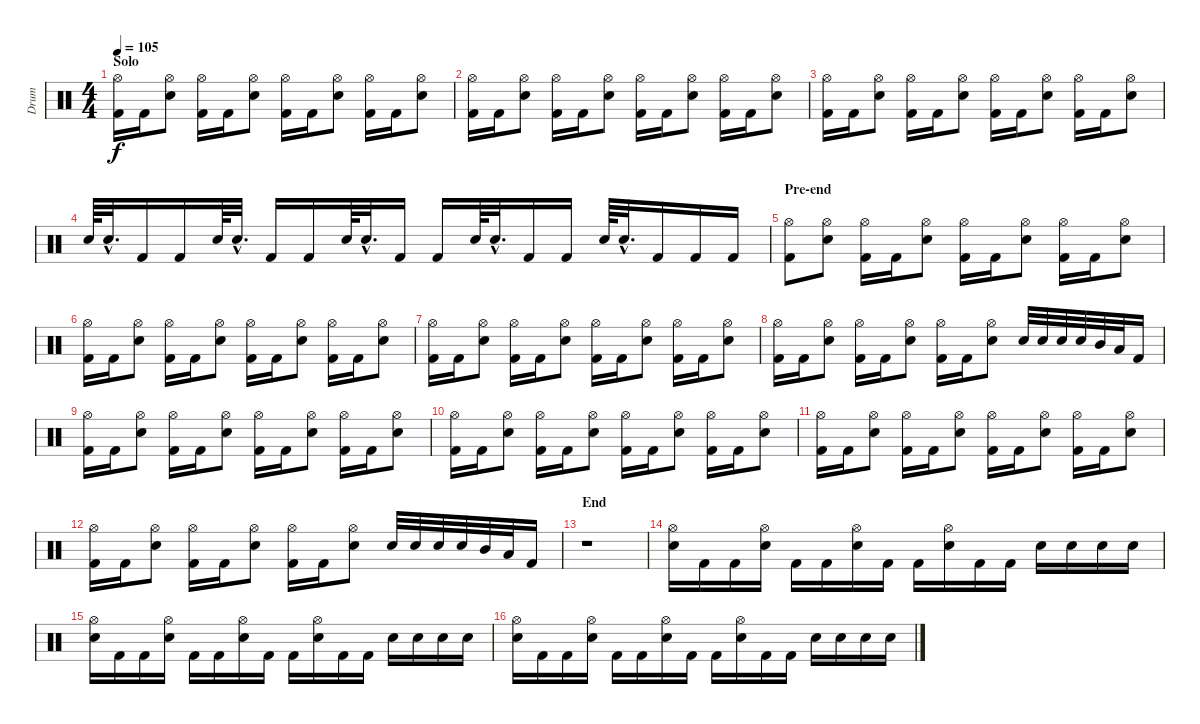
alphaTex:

\track ("Drum" "Drum") {instrument percussion}
\staff {score}
\articulation defaults
\ts (4 4)
\section ("" "Solo")
\tempo 105
\clef neutral
\ks c
("Hi-Hat (open)" "Kick (hit) 2").16{dy f} "Kick (hit) 2".16 ("Hi-Hat (open)" "Electric Snare (hit)").8 ("Hi-Hat (open)" "Kick (hit) 2").16 "Kick (hit) 2".16 ("Hi-Hat (open)" "Electric Snare (hit)").8 ("Hi-Hat (open)" "Kick (hit) 2").16 "Kick (hit) 2".16 ("Hi-Hat (open)" "Electric Snare (hit)").8 ("Hi-Hat (open)" "Kick (hit) 2").16 "Kick (hit) 2".16 ("Hi-Hat (open)" "Electric Snare (hit)").8 |
("Hi-Hat (open)" "Kick (hit) 2").16 "Kick (hit) 2".16 ("Hi-Hat (open)" "Electric Snare (hit)").8 ("Hi-Hat (open)" "Kick (hit) 2").16 "Kick (hit) 2".16 ("Hi-Hat (open)" "Electric Snare (hit)").8 ("Hi-Hat (open)" "Kick (hit) 2").16 "Kick (hit) 2".16 ("Hi-Hat (open)" "Electric Snare (hit)").8 ("Hi-Hat (open)" "Kick (hit) 2").16 "Kick (hit) 2".16 ("Hi-Hat (open)" "Electric Snare (hit)").8 |
("Hi-Hat (open)" "Kick (hit) 2").16 "Kick (hit) 2".16 ("Hi-Hat (open)" "Electric Snare (hit)").8 ("Hi-Hat (open)" "Kick (hit) 2").16 "Kick (hit) 2".16 ("Hi-Hat (open)" "Electric Snare (hit)").8 ("Hi-Hat (open)" "Kick (hit) 2").16 "Kick (hit) 2".16 ("Hi-Hat (open)" "Electric Snare (hit)").8 ("Hi-Hat (open)" "Kick (hit) 2").16 "Kick (hit) 2".16 ("Hi-Hat (open)" "Electric Snare (hit)").8 |
"Electric Snare (hit)".64 "Electric Snare (hit)"{hac}.32{d} "Kick (hit) 2".16 "Kick (hit) 2".16 "Electric Snare (hit)".64 "Electric Snare (hit)"{hac}.32{d} "Kick (hit) 2".16 "Kick (hit) 2".16 "Electric Snare (hit)".64 "Electric Snare (hit)"{hac}.32{d} "Kick (hit) 2".16 "Kick (hit) 2".16 "Electric Snare (hit)".64 "Electric Snare (hit)"{hac}.32{d} "Kick (hit) 2".16 "Kick (hit) 2".16 "Electric Snare (hit)".64 "Electric Snare (hit)"{hac}.32{d} "Kick (hit) 2".16 "Kick (hit) 2".16 "Kick (hit) 2".16 |
\section ("" "Pre-end")
("Hi-Hat (open)" "Kick (hit) 2").8 ("Hi-Hat (open)" "Electric Snare (hit)").8 ("Hi-Hat (open)" "Kick (hit) 2").16 "Kick (hit) 2".16 ("Hi-Hat (open)" "Electric Snare (hit)").8 ("Hi-Hat (open)" "Kick (hit) 2").16 "Kick (hit) 2".16 ("Hi-Hat (open)" "Electric Snare (hit)").8 ("Hi-Hat (open)" "Kick (hit) 2").16 "Kick (hit) 2".16 ("Hi-Hat (open)" "Electric Snare (hit)").8 |
("Hi-Hat (open)" "Kick (hit) 2").16 "Kick (hit) 2".16 ("Hi-Hat (open)" "Electric Snare (hit)").8 ("Hi-Hat (open)" "Kick (hit) 2").16 "Kick (hit) 2".16 ("Hi-Hat (open)" "Electric Snare (hit)").8 ("Hi-Hat (open)" "Kick (hit) 2").16 "Kick (hit) 2".16 ("Hi-Hat (open)" "Electric Snare (hit)").8 ("Hi-Hat (open)" "Kick (hit) 2").16 "Kick (hit) 2".16 ("Hi-Hat (open)" "Electric Snare (hit)").8 |
("Hi-Hat (open)" "Kick (hit) 2").16 "Kick (hit) 2".16 ("Hi-Hat (open)" "Electric Snare (hit)").8 ("Hi-Hat (open)" "Kick (hit) 2").16 "Kick (hit) 2".16 ("Hi-Hat (open)" "Electric Snare (hit)").8 ("Hi-Hat (open)" "Kick (hit) 2").16 "Kick (hit) 2".16 ("Hi-Hat (open)" "Electric Snare (hit)").8 ("Hi-Hat (open)" "Kick (hit) 2").16 "Kick (hit) 2".16 ("Hi-Hat (open)" "Electric Snare (hit)").8 |
("Hi-Hat (open)" "Kick (hit) 2").16 "Kick (hit) 2".16 ("Hi-Hat (open)" "Electric Snare (hit)").8 ("Hi-Hat (open)" "Kick (hit) 2").16 "Kick (hit) 2".16 ("Hi-Hat (open)" "Electric Snare (hit)").8 ("Hi-Hat (open)" "Kick (hit) 2").16 "Kick (hit) 2".16 ("Hi-Hat (open)" "Electric Snare (hit)").8 "Electric Snare (hit)".32 "Electric Snare (hit)".32 "Electric Snare (hit)".32 "Electric Snare (hit)".32 "Mid Tom (hit)".32 "Low Tom (hit)".32 "Kick (hit) 2".16 |
("Hi-Hat (open)" "Kick (hit) 2").16 "Kick (hit) 2".16 ("Hi-Hat (open)" "Electric Snare (hit)").8 ("Hi-Hat (open)" "Kick (hit) 2").16 "Kick (hit) 2".16 ("Hi-Hat (open)" "Electric Snare (hit)").8 ("Hi-Hat (open)" "Kick (hit) 2").16 "Kick (hit) 2".16 ("Hi-Hat (open)" "Electric Snare (hit)").8 ("Hi-Hat (open)" "Kick (hit) 2").16 "Kick (hit) 2".16 ("Hi-Hat (open)" "Electric Snare (hit)").8 |
("Hi-Hat (open)" "Kick (hit) 2").16 "Kick (hit) 2".16 ("Hi-Hat (open)" "Electric Snare (hit)").8 ("Hi-Hat (open)" "Kick (hit) 2").16 "Kick (hit) 2".16 ("Hi-Hat (open)" "Electric Snare (hit)").8 ("Hi-Hat (open)" "Kick (hit) 2").16 "Kick (hit) 2".16 ("Hi-Hat (open)" "Electric Snare (hit)").8 ("Hi-Hat (open)" "Kick (hit) 2").16 "Kick (hit) 2".16 ("Hi-Hat (open)" "Electric Snare (hit)").8 |
("Hi-Hat (open)" "Kick (hit) 2").16 "Kick (hit) 2".16 ("Hi-Hat (open)" "Electric Snare (hit)").8 ("Hi-Hat (open)" "Kick (hit) 2").16 "Kick (hit) 2".16 ("Hi-Hat (open)" "Electric Snare (hit)").8 ("Hi-Hat (open)" "Kick (hit) 2").16 "Kick (hit) 2".16 ("Hi-Hat (open)" "Electric Snare (hit)").8 ("Hi-Hat (open)" "Kick (hit) 2").16 "Kick (hit) 2".16 ("Hi-Hat (open)" "Electric Snare (hit)").8 |
("Hi-Hat (open)" "Kick (hit) 2").16 "Kick (hit) 2".16 ("Hi-Hat (open)" "Electric Snare (hit)").8 ("Hi-Hat (open)" "Kick (hit) 2").16 "Kick (hit) 2".16 ("Hi-Hat (open)" "Electric Snare (hit)").8 ("Hi-Hat (open)" "Kick (hit) 2").16 "Kick (hit) 2".16 ("Hi-Hat (open)" "Electric Snare (hit)").8 "Electric Snare (hit)".32 "Electric Snare (hit)".32 "Electric Snare (hit)".32 "Electric Snare (hit)".32 "Mid Tom (hit)".32 "Low Tom (hit)".32 "Kick (hit) 2".16 |
\section ("" "End")
r.1 |
("Hi-Hat (open)" "Electric Snare (hit)").16 "Kick (hit) 2".16 "Kick (hit) 2".16 ("Hi-Hat (open)" "Electric Snare (hit)").16 "Kick (hit) 2".16 "Kick (hit) 2".16 ("Hi-Hat (open)" "Electric Snare (hit)").16 "Kick (hit) 2".16 "Kick (hit) 2".16 ("Hi-Hat (open)" "Electric Snare (hit)").16 "Kick (hit) 2".16 "Kick (hit) 2".16 "Electric Snare (hit)".16 "Electric Snare (hit)".16 "Electric Snare (hit)".16 "Electric Snare (hit)".16 |
("Hi-Hat (open)" "Electric Snare (hit)").16 "Kick (hit) 2".16 "Kick (hit) 2".16 ("Hi-Hat (open)" "Electric Snare (hit)").16 "Kick (hit) 2".16 "Kick (hit) 2".16 ("Hi-Hat (open)" "Electric Snare (hit)").16 "Kick (hit) 2".16 "Kick (hit) 2".16 ("Hi-Hat (open)" "Electric Snare (hit)").16 "Kick (hit) 2".16 "Kick (hit) 2".16 "Electric Snare (hit)".16 "Electric Snare (hit)".16 "Electric Snare (hit)".16 "Electric Snare (hit)".16 |
("Hi-Hat (open)" "Electric Snare (hit)").16 "Kick (hit) 2".16 "Kick (hit) 2".16 ("Hi-Hat (open)" "Electric Snare (hit)").16 "Kick (hit) 2".16 "Kick (hit) 2".16 ("Hi-Hat (open)" "Electric Snare (hit)").16 "Kick (hit) 2".16 "Kick (hit) 2".16 ("Hi-Hat (open)" "Electric Snare (hit)").16 "Kick (hit) 2".16 "Kick (hit) 2".16 "Electric Snare (hit)".16 "Electric Snare (hit)".16 "Electric Snare (hit)".16 "Electric Snare (hit)".16
